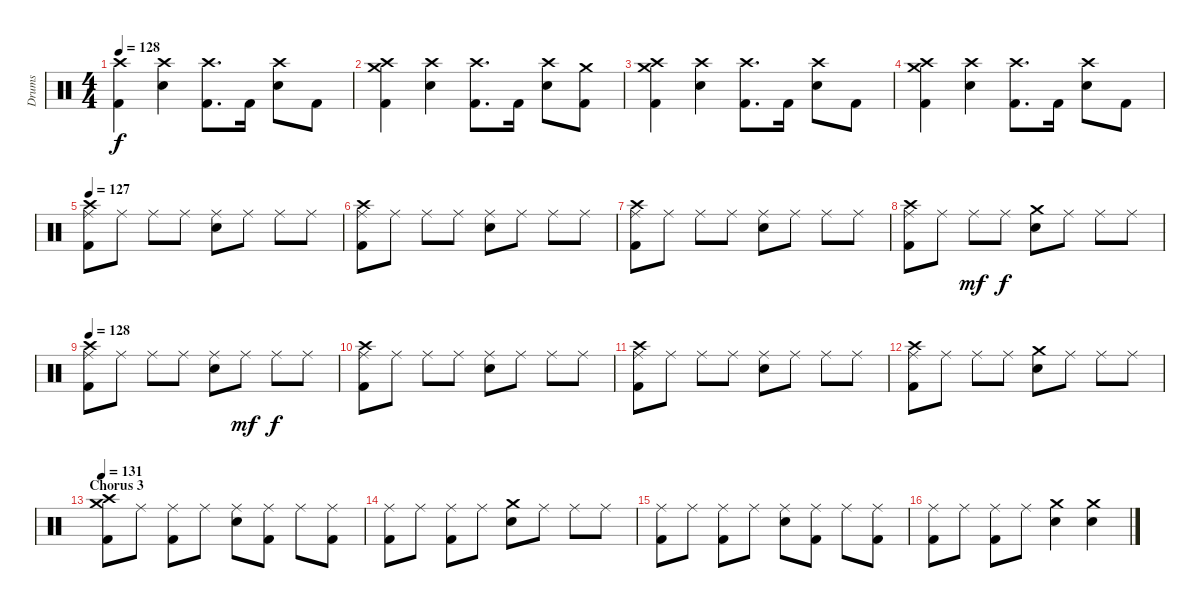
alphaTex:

\track ("Drums" "Drums") {instrument percussion}
\staff {score}
\articulation defaults
\ts (4 4)
\tempo 128
\clef neutral
\ks c
("Crash high (hit)" "Kick (hit) 2").4{dy f} ("Crash high (hit)" "Snare (hit) 2").4 ("Crash high (hit)" "Kick (hit) 2").8{d} "Kick (hit) 2".16 ("Crash high (hit)" "Snare (hit) 2").8 "Kick (hit) 2".8 |
("Crash medium (hit)" "Crash high (hit)" "Kick (hit) 2").4 ("Crash high (hit)" "Snare (hit) 2").4 ("Crash high (hit)" "Kick (hit) 2").8{d} "Kick (hit) 2".16 ("Crash high (hit)" "Snare (hit) 2").8 ("Crash medium (hit)" "Kick (hit) 2").8 |
("Crash medium (hit)" "Crash high (hit)" "Kick (hit) 2").4 ("Crash high (hit)" "Snare (hit) 2").4 ("Crash high (hit)" "Kick (hit) 2").8{d} "Kick (hit) 2".16 ("Crash high (hit)" "Snare (hit) 2").8 "Kick (hit) 2".8 |
("Crash medium (hit)" "Crash high (hit)" "Kick (hit) 2").4 ("Crash high (hit)" "Snare (hit) 2").4 ("Crash high (hit)" "Kick (hit) 2").8{d} "Kick (hit) 2".16 ("Crash high (hit)" "Snare (hit) 2").8 "Kick (hit) 2".8 |
\tempo 127
("Crash high (hit)" "Ride (middle)" "Kick (hit) 2").8 "Ride (middle)".8 "Ride (middle)".8 "Ride (middle)".8 ("Ride (middle)" "Snare (hit) 2").8 "Ride (middle)".8 "Ride (middle)".8 "Ride (middle)".8 |
("Crash high (hit)" "Ride (middle)" "Kick (hit) 2").8 "Ride (middle)".8 "Ride (middle)".8 "Ride (middle)".8 ("Ride (middle)" "Snare (hit) 2").8 "Ride (middle)".8 "Ride (middle)".8 "Ride (middle)".8 |
("Crash high (hit)" "Ride (middle)" "Kick (hit) 2").8 "Ride (middle)".8 "Ride (middle)".8 "Ride (middle)".8 ("Ride (middle)" "Snare (hit) 2").8 "Ride (middle)".8 "Ride (middle)".8 "Ride (middle)".8 |
("Crash high (hit)" "Ride (middle)" "Kick (hit) 2").8 "Ride (middle)".8 "Ride (middle)".8{dy mf} "Ride (middle)".8{dy f} ("Crash medium (hit)" "Snare (hit) 2").8 "Ride (middle)".8 "Ride (middle)".8 "Ride (middle)".8 |
\tempo 128
("Crash high (hit)" "Ride (middle)" "Kick (hit) 2").8 "Ride (middle)".8 "Ride (middle)".8 "Ride (middle)".8 ("Ride (middle)" "Snare (hit) 2").8 "Ride (middle)".8{dy mf} "Ride (middle)".8{dy f} "Ride (middle)".8 |
("Crash high (hit)" "Ride (middle)" "Kick (hit) 2").8 "Ride (middle)".8 "Ride (middle)".8 "Ride (middle)".8 ("Ride (middle)" "Snare (hit) 2").8 "Ride (middle)".8 "Ride (middle)".8 "Ride (middle)".8 |
("Crash high (hit)" "Ride (middle)" "Kick (hit) 2").8 "Ride (middle)".8 "Ride (middle)".8 "Ride (middle)".8 ("Ride (middle)" "Snare (hit) 2").8 "Ride (middle)".8 "Ride (middle)".8 "Ride (middle)".8 |
("Crash high (hit)" "Ride (middle)" "Kick (hit) 2").8 "Ride (middle)".8 "Ride (middle)".8 "Ride (middle)".8 ("Crash medium (hit)" "Snare (hit) 2").8 "Ride (middle)".8 "Ride (middle)".8 "Ride (middle)".8 |
\section ("" "Chorus 3")
\tempo 131
("Crash medium (hit)" "Crash high (hit)" "Kick (hit) 2").8 "Ride (middle)".8 ("Ride (middle)" "Kick (hit) 2").8 "Ride (middle)".8 ("Ride (middle)" "Snare (hit) 2").8 ("Ride (middle)" "Kick (hit) 2").8 "Ride (middle)".8 ("Ride (middle)" "Kick (hit) 2").8 |
("Ride (middle)" "Kick (hit) 2").8 "Ride (middle)".8 ("Ride (middle)" "Kick (hit) 2").8 "Ride (middle)".8 ("Crash medium (hit)" "Snare (hit) 2").8 "Ride (middle)".8 "Ride (middle)".8 "Ride (middle)".8 |
("Ride (middle)" "Kick (hit) 2").8 "Ride (middle)".8 ("Ride (middle)" "Kick (hit) 2").8 "Ride (middle)".8 ("Ride (middle)" "Snare (hit) 2").8 ("Ride (middle)" "Kick (hit) 2").8 "Ride (middle)".8 ("Ride (middle)" "Kick (hit) 2").8 |
("Ride (middle)" "Kick (hit) 2").8 "Ride (middle)".8 ("Ride (middle)" "Kick (hit) 2").8 "Ride (middle)".8 ("Crash medium (hit)" "Snare (hit) 2").4 ("Crash medium (hit)" "Snare (hit) 2").4
